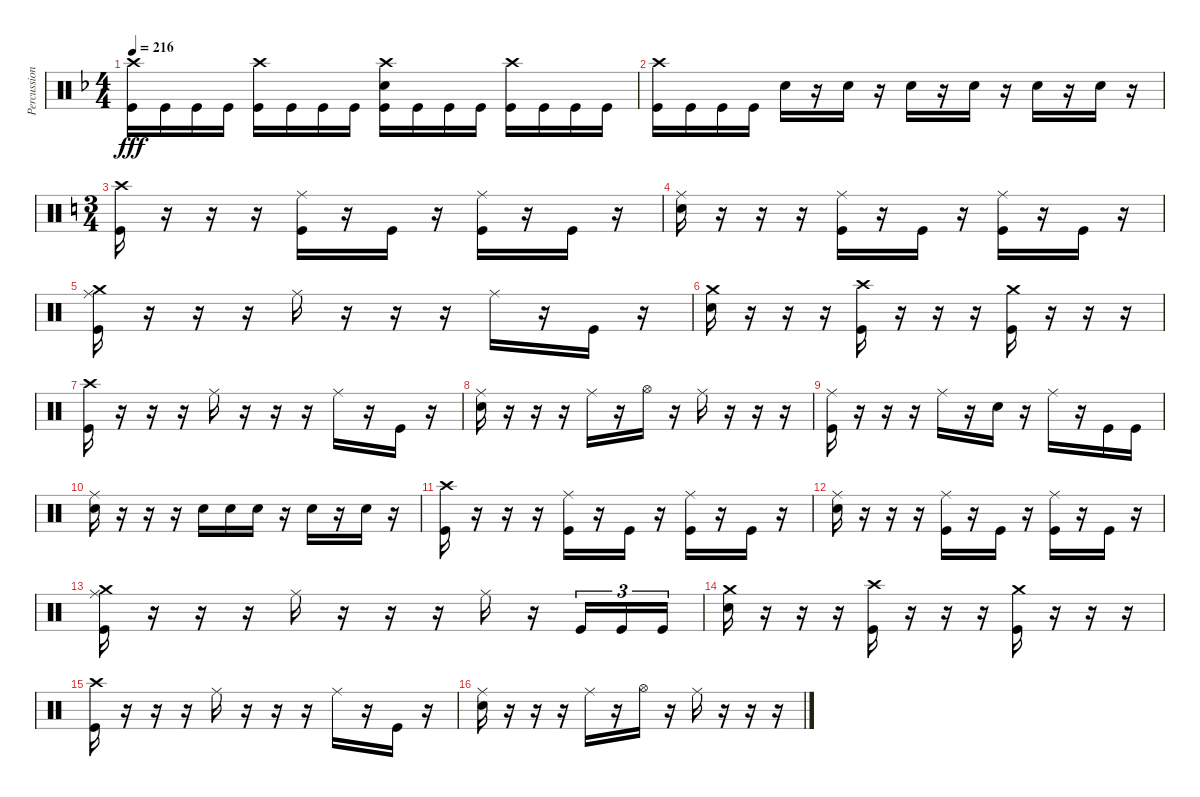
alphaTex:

\track ("Percussion" "Percussion") {instrument percussion}
\staff {score}
\articulation defaults
\ts (4 4)
\tempo 216
\clef neutral
\ks f
("Crash high (hit)" "Kick (hit)").16{dy fff} "Kick (hit)".16 "Kick (hit)".16 "Kick (hit)".16 ("Crash high (hit)" "Kick (hit)").16 "Kick (hit)".16 "Kick (hit)".16 "Kick (hit)".16 ("Crash high (hit)" "Electric Snare (hit)" "Kick (hit)").16 "Kick (hit)".16 "Kick (hit)".16 "Kick (hit)".16 ("Crash high (hit)" "Kick (hit)").16 "Kick (hit)".16 "Kick (hit)".16 "Kick (hit)".16 |
("Crash high (hit)" "Kick (hit)").16 "Kick (hit)".16 "Kick (hit)".16 "Kick (hit)".16 "Electric Snare (hit)".16 r.16 "Electric Snare (hit)".16 r.16 "Electric Snare (hit)".16 r.16 "Electric Snare (hit)".16 r.16 "Electric Snare (hit)".16 r.16 "Electric Snare (hit)".16 r.16 |
\ts (3 4)
\ks c
("Crash high (hit)" "Kick (hit)").16 r.16 r.16 r.16 ("Ride (middle)" "Kick (hit)").16 r.16 "Kick (hit)".16 r.16 ("Ride (middle)" "Kick (hit)").16 r.16 "Kick (hit)".16 r.16 |
("Ride (middle)" "Electric Snare (hit)").16 r.16 r.16 r.16 ("Ride (middle)" "Kick (hit)").16 r.16 "Kick (hit)".16 r.16 ("Ride (middle)" "Kick (hit)").16 r.16 "Kick (hit)".16 r.16 |
("Crash medium (hit)" "Ride (middle)" "Kick (hit)").16 r.16 r.16 r.16 "Ride (middle)".16 r.16 r.16 r.16 "Ride (middle)".16 r.16 "Kick (hit)".16 r.16 |
("Crash medium (hit)" "Electric Snare (hit)").16 r.16 r.16 r.16 ("Crash high (hit)" "Kick (hit)").16 r.16 r.16 r.16 ("Crash medium (hit)" "Kick (hit)").16 r.16 r.16 r.16 |
("Crash high (hit)" "Kick (hit)").16 r.16 r.16 r.16 "Ride (middle)".16 r.16 r.16 r.16 "Ride (middle)".16 r.16 "Kick (hit)".16 r.16 |
("Ride (middle)" "Electric Snare (hit)").16 r.16 r.16 r.16 "Ride (middle)".16 r.16 "Hi-Hat (open)".16 r.16 "Ride (middle)".16 r.16 r.16 r.16 |
("Ride (middle)" "Kick (hit)").16 r.16 r.16 r.16 "Ride (middle)".16 r.16 "Electric Snare (hit)".16 r.16 "Ride (middle)".16 r.16 "Kick (hit)".16 "Kick (hit)".16 |
("Ride (middle)" "Electric Snare (hit)").16 r.16 r.16 r.16 "Electric Snare (hit)".16 "Electric Snare (hit)".16 "Electric Snare (hit)".16 r.16 "Electric Snare (hit)".16 r.16 "Electric Snare (hit)".16 r.16 |
("Crash high (hit)" "Kick (hit)").16 r.16 r.16 r.16 ("Ride (middle)" "Kick (hit)").16 r.16 "Kick (hit)".16 r.16 ("Ride (middle)" "Kick (hit)").16 r.16 "Kick (hit)".16 r.16 |
("Ride (middle)" "Electric Snare (hit)").16 r.16 r.16 r.16 ("Ride (middle)" "Kick (hit)").16 r.16 "Kick (hit)".16 r.16 ("Ride (middle)" "Kick (hit)").16 r.16 "Kick (hit)".16 r.16 |
("Crash medium (hit)" "Ride (middle)" "Kick (hit)").16 r.16 r.16 r.16 "Ride (middle)".16 r.16 r.16 r.16 "Ride (middle)".16 r.16 "Kick (hit)".16{tu (3 2)} "Kick (hit)".16{tu (3 2)} "Kick (hit)".16{tu (3 2)} |
("Crash medium (hit)" "Electric Snare (hit)").16 r.16 r.16 r.16 ("Crash high (hit)" "Kick (hit)").16 r.16 r.16 r.16 ("Crash medium (hit)" "Kick (hit)").16 r.16 r.16 r.16 |
("Crash high (hit)" "Kick (hit)").16 r.16 r.16 r.16 "Ride (middle)".16 r.16 r.16 r.16 "Ride (middle)".16 r.16 "Kick (hit)".16 r.16 |
("Ride (middle)" "Electric Snare (hit)").16 r.16 r.16 r.16 "Ride (middle)".16 r.16 "Hi-Hat (open)".16 r.16 "Ride (middle)".16 r.16 r.16 r.16
